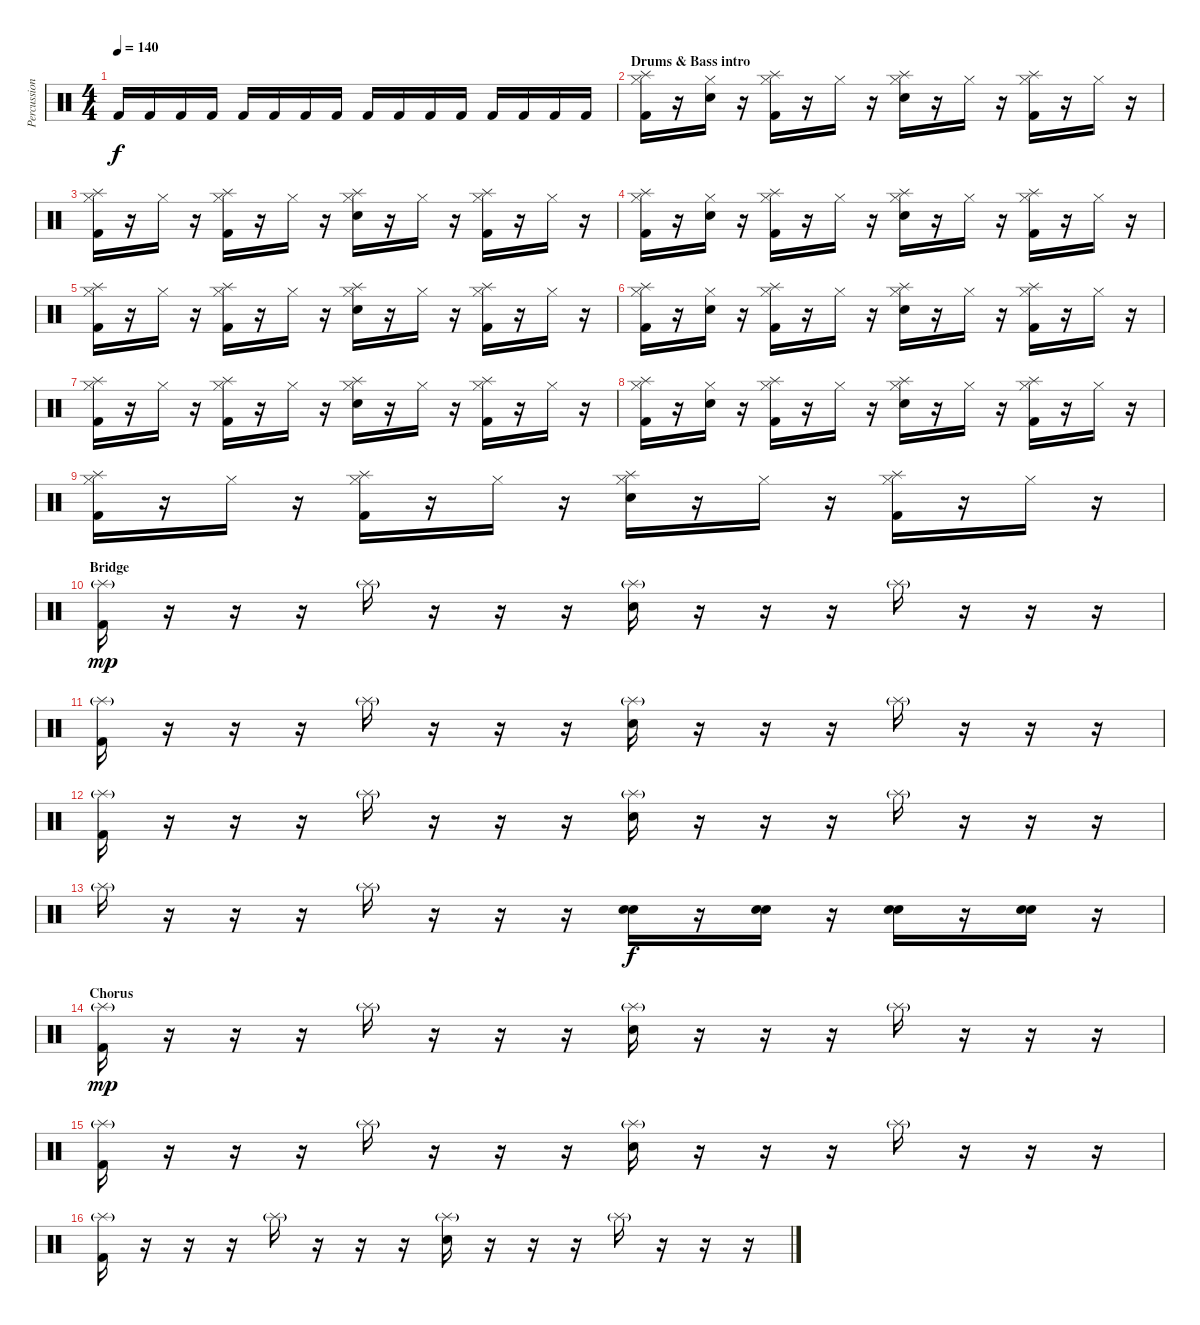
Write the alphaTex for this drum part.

\track ("Percussion" "Percussion") {instrument percussion}
\staff {score}
\articulation defaults
\ts (4 4)
\tempo 140
\clef neutral
\ks c "Kick (hit) 2".16{dy f} "Kick (hit) 2".16 "Kick (hit) 2".16 "Kick (hit) 2".16 "Kick (hit) 2".16 "Kick (hit) 2".16 "Kick (hit) 2".16 "Kick (hit) 2".16 "Kick (hit) 2".16 "Kick (hit) 2".16 "Kick (hit) 2".16 "Kick (hit) 2".16 "Kick (hit) 2".16 "Kick (hit) 2".16 "Kick (hit) 2".16 "Kick (hit) 2".16
|
\section ("" "Drums & Bass intro")
("Kick (hit) 2" "Splash (hit)" "Hi-Hat (closed)").16 r.16 ("Snare (hit) 2" "Hi-Hat (closed)").16 r.16 ("Kick (hit) 2" "Splash (hit)" "Hi-Hat (closed)").16 r.16 "Hi-Hat (closed)".16 r.16 ("Snare (hit) 2" "Splash (hit)" "Hi-Hat (closed)").16 r.16 "Hi-Hat (closed)".16 r.16 ("Kick (hit) 2" "Splash (hit)" "Hi-Hat (closed)").16 r.16 "Hi-Hat (closed)".16 r.16 |
("Kick (hit) 2" "Splash (hit)" "Hi-Hat (closed)").16 r.16 "Hi-Hat (closed)".16 r.16 ("Kick (hit) 2" "Splash (hit)" "Hi-Hat (closed)").16 r.16 "Hi-Hat (closed)".16 r.16 ("Snare (hit) 2" "Splash (hit)" "Hi-Hat (closed)").16 r.16 "Hi-Hat (closed)".16 r.16 ("Kick (hit) 2" "Splash (hit)" "Hi-Hat (closed)").16 r.16 "Hi-Hat (closed)".16 r.16 |
("Kick (hit) 2" "Splash (hit)" "Hi-Hat (closed)").16 r.16 ("Snare (hit) 2" "Hi-Hat (closed)").16 r.16 ("Kick (hit) 2" "Splash (hit)" "Hi-Hat (closed)").16 r.16 "Hi-Hat (closed)".16 r.16 ("Snare (hit) 2" "Splash (hit)" "Hi-Hat (closed)").16 r.16 "Hi-Hat (closed)".16 r.16 ("Kick (hit) 2" "Splash (hit)" "Hi-Hat (closed)").16 r.16 "Hi-Hat (closed)".16 r.16 |
("Kick (hit) 2" "Splash (hit)" "Hi-Hat (closed)").16 r.16 "Hi-Hat (closed)".16 r.16 ("Kick (hit) 2" "Splash (hit)" "Hi-Hat (closed)").16 r.16 "Hi-Hat (closed)".16 r.16 ("Snare (hit) 2" "Splash (hit)" "Hi-Hat (closed)").16 r.16 "Hi-Hat (closed)".16 r.16 ("Kick (hit) 2" "Splash (hit)" "Hi-Hat (closed)").16 r.16 "Hi-Hat (closed)".16 r.16 |
("Kick (hit) 2" "Splash (hit)" "Hi-Hat (closed)").16 r.16 ("Snare (hit) 2" "Hi-Hat (closed)").16 r.16 ("Kick (hit) 2" "Splash (hit)" "Hi-Hat (closed)").16 r.16 "Hi-Hat (closed)".16 r.16 ("Snare (hit) 2" "Splash (hit)" "Hi-Hat (closed)").16 r.16 "Hi-Hat (closed)".16 r.16 ("Kick (hit) 2" "Splash (hit)" "Hi-Hat (closed)").16 r.16 "Hi-Hat (closed)".16 r.16 |
("Kick (hit) 2" "Splash (hit)" "Hi-Hat (closed)").16 r.16 "Hi-Hat (closed)".16 r.16 ("Kick (hit) 2" "Splash (hit)" "Hi-Hat (closed)").16 r.16 "Hi-Hat (closed)".16 r.16 ("Snare (hit) 2" "Splash (hit)" "Hi-Hat (closed)").16 r.16 "Hi-Hat (closed)".16 r.16 ("Kick (hit) 2" "Splash (hit)" "Hi-Hat (closed)").16 r.16 "Hi-Hat (closed)".16 r.16 |
("Kick (hit) 2" "Splash (hit)" "Hi-Hat (closed)").16 r.16 ("Snare (hit) 2" "Hi-Hat (closed)").16 r.16 ("Kick (hit) 2" "Splash (hit)" "Hi-Hat (closed)").16 r.16 "Hi-Hat (closed)".16 r.16 ("Snare (hit) 2" "Splash (hit)" "Hi-Hat (closed)").16 r.16 "Hi-Hat (closed)".16 r.16 ("Kick (hit) 2" "Splash (hit)" "Hi-Hat (closed)").16 r.16 "Hi-Hat (closed)".16 r.16 |
("Kick (hit) 2" "Splash (hit)" "Hi-Hat (closed)").16 r.16 "Hi-Hat (closed)".16 r.16 ("Kick (hit) 2" "Splash (hit)" "Hi-Hat (closed)").16 r.16 "Hi-Hat (closed)".16 r.16 ("Snare (hit) 2" "Splash (hit)" "Hi-Hat (closed)").16 r.16 "Hi-Hat (closed)".16 r.16 ("Kick (hit) 2" "Splash (hit)" "Hi-Hat (closed)").16 r.16 "Hi-Hat (closed)".16 r.16 |
\section ("" "Bridge")
("Kick (hit) 2" "Splash (hit)"{g}).16{dy mp} r.16 r.16 r.16 "Splash (hit)"{g}.16 r.16 r.16 r.16 ("Snare (hit) 2" "Splash (hit)"{g}).16 r.16 r.16 r.16 "Splash (hit)"{g}.16 r.16 r.16 r.16 |
("Kick (hit) 2" "Splash (hit)"{g}).16 r.16 r.16 r.16 "Splash (hit)"{g}.16 r.16 r.16 r.16 ("Snare (hit) 2" "Splash (hit)"{g}).16 r.16 r.16 r.16 "Splash (hit)"{g}.16 r.16 r.16 r.16 |
("Kick (hit) 2" "Splash (hit)"{g}).16 r.16 r.16 r.16 "Splash (hit)"{g}.16 r.16 r.16 r.16 ("Snare (hit) 2" "Splash (hit)"{g}).16 r.16 r.16 r.16 "Splash (hit)"{g}.16 r.16 r.16 r.16 |
"Splash (hit)"{g}.16 r.16 r.16 r.16 "Splash (hit)"{g}.16 r.16 r.16 r.16 ("Snare (hit) 2" "Electric Snare (hit)").16{dy f} r.16 ("Snare (hit) 2" "Electric Snare (hit)").16 r.16 ("Snare (hit) 2" "Electric Snare (hit)").16 r.16 ("Snare (hit) 2" "Electric Snare (hit)").16 r.16 |
\section ("" "Chorus")
("Kick (hit) 2" "Splash (hit)"{g}).16{dy mp} r.16 r.16 r.16 "Splash (hit)"{g}.16 r.16 r.16 r.16 ("Snare (hit) 2" "Splash (hit)"{g}).16 r.16 r.16 r.16 "Splash (hit)"{g}.16 r.16 r.16 r.16 |
("Kick (hit) 2" "Splash (hit)"{g}).16 r.16 r.16 r.16 "Splash (hit)"{g}.16 r.16 r.16 r.16 ("Snare (hit) 2" "Splash (hit)"{g}).16 r.16 r.16 r.16 "Splash (hit)"{g}.16 r.16 r.16 r.16 |
("Kick (hit) 2" "Splash (hit)"{g}).16 r.16 r.16 r.16 "Splash (hit)"{g}.16 r.16 r.16 r.16 ("Snare (hit) 2" "Splash (hit)"{g}).16 r.16 r.16 r.16 "Splash (hit)"{g}.16 r.16 r.16 r.16
